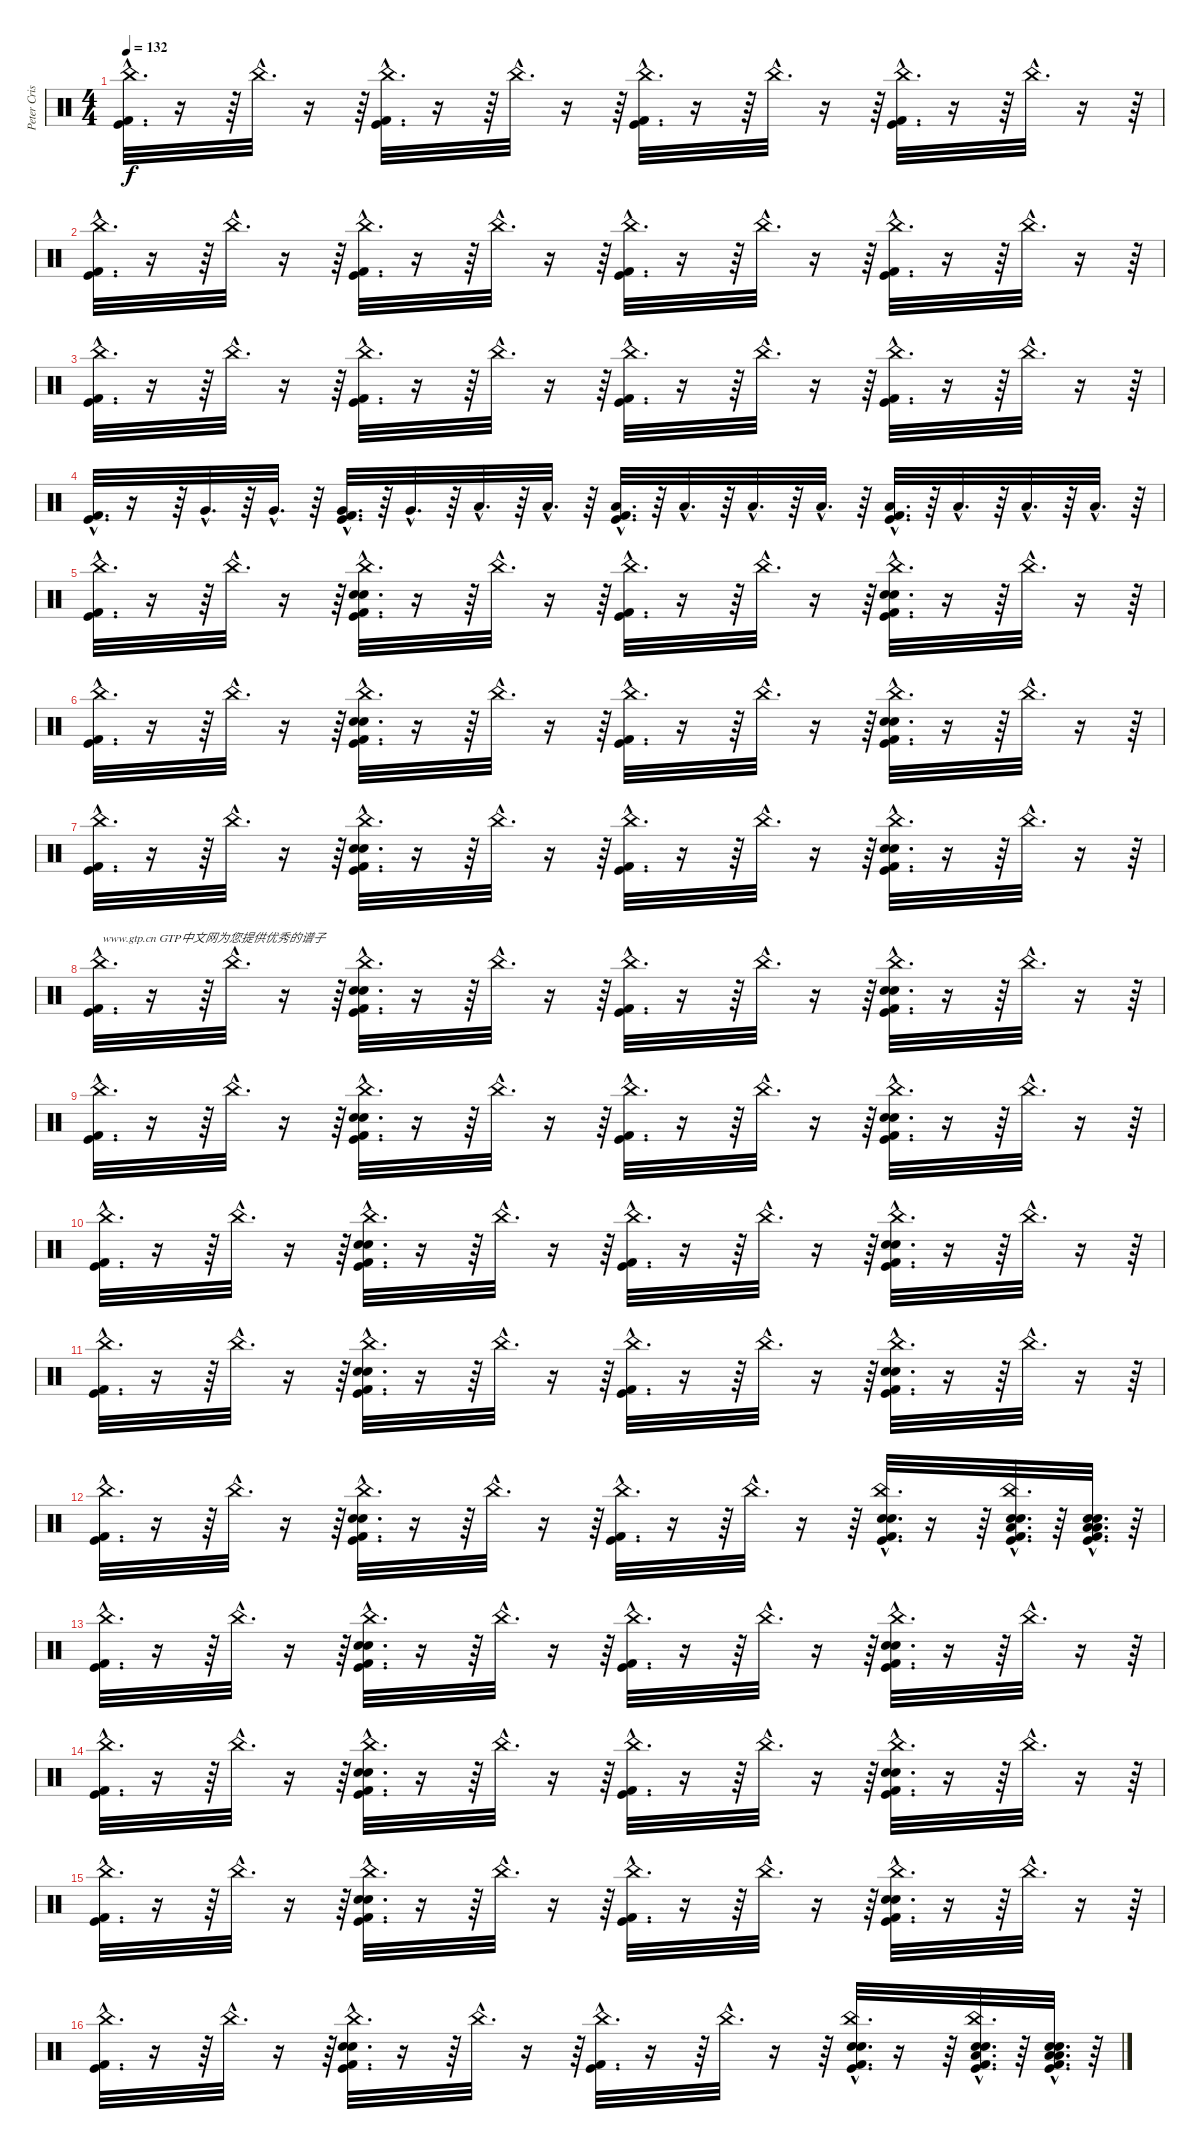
\track ("Peter Criss" "Peter Cris") {instrument percussion}
\staff {score}
\articulation defaults
\ts (4 4)
\tempo 132
\clef neutral
\ks c
("Kick (hit) 2"{hac} "Kick (hit)"{hac} "China (hit)"{hac}).32{d dy f} r.16 r.64 "China (hit)"{hac}.32{d} r.16 r.64 ("Kick (hit) 2"{hac} "Kick (hit)"{hac} "China (hit)"{hac}).32{d} r.16 r.64 "China (hit)"{hac}.32{d} r.16 r.64 ("Kick (hit) 2"{hac} "Kick (hit)"{hac} "China (hit)"{hac}).32{d} r.16 r.64 "China (hit)"{hac}.32{d} r.16 r.64 ("Kick (hit) 2"{hac} "Kick (hit)"{hac} "China (hit)"{hac}).32{d} r.16 r.64 "China (hit)"{hac}.32{d} r.16 r.64 |
("Kick (hit) 2"{hac} "Kick (hit)"{hac} "China (hit)"{hac}).32{d} r.16 r.64 "China (hit)"{hac}.32{d} r.16 r.64 ("Kick (hit) 2"{hac} "Kick (hit)"{hac} "China (hit)"{hac}).32{d} r.16 r.64 "China (hit)"{hac}.32{d} r.16 r.64 ("Kick (hit) 2"{hac} "Kick (hit)"{hac} "China (hit)"{hac}).32{d} r.16 r.64 "China (hit)"{hac}.32{d} r.16 r.64 ("Kick (hit) 2"{hac} "Kick (hit)"{hac} "China (hit)"{hac}).32{d} r.16 r.64 "China (hit)"{hac}.32{d} r.16 r.64 |
("Kick (hit) 2"{hac} "Kick (hit)"{hac} "China (hit)"{hac}).32{d} r.16 r.64 "China (hit)"{hac}.32{d} r.16 r.64 ("Kick (hit) 2"{hac} "Kick (hit)"{hac} "China (hit)"{hac}).32{d} r.16 r.64 "China (hit)"{hac}.32{d} r.16 r.64 ("Kick (hit) 2"{hac} "Kick (hit)"{hac} "China (hit)"{hac}).32{d} r.16 r.64 "China (hit)"{hac}.32{d} r.16 r.64 ("Kick (hit) 2"{hac} "Kick (hit)"{hac} "China (hit)"{hac}).32{d} r.16 r.64 "China (hit)"{hac}.32{d} r.16 r.64 |
("Kick (hit) 2"{hac} "Kick (hit)"{hac}).32{d} r.16 r.64 "Very Low Tom (hit)"{hac}.32{d} r.64 "Very Low Tom (hit)"{hac}.32{d} r.64 ("Kick (hit)"{hac} "Kick (hit) 2"{hac} "Very Low Tom (hit)"{hac}).32{d} r.64 "Very Low Tom (hit)"{hac}.32{d} r.64 "Low Tom (hit)"{hac}.32{d} r.64 "Low Tom (hit)"{hac}.32{d} r.64 ("Kick (hit)"{hac} "Kick (hit) 2"{hac} "Low Tom (hit)"{hac}).32{d} r.64 "Low Tom (hit)"{hac}.32{d} r.64 "Low Floor Tom (hit)"{hac}.32{d} r.64 "Low Floor Tom (hit)"{hac}.32{d} r.64 ("Kick (hit)"{hac} "Kick (hit) 2"{hac} "Low Floor Tom (hit)"{hac}).32{d} r.64 "Low Floor Tom (hit)"{hac}.32{d} r.64 "Low Floor Tom (hit)"{hac}.32{d} r.64 "Low Floor Tom (hit)"{hac}.32{d} r.64 |
("Kick (hit) 2"{hac} "Kick (hit)"{hac} "China (hit)"{hac}).32{d} r.16 r.64 "China (hit)"{hac}.32{d} r.16 r.64 ("Kick (hit) 2"{hac} "Kick (hit)"{hac} "China (hit)"{hac} "Electric Snare (hit)"{hac} "Snare (hit) 2"{hac}).32{d} r.16 r.64 "China (hit)"{hac}.32{d} r.16 r.64 ("Kick (hit) 2"{hac} "Kick (hit)"{hac} "China (hit)"{hac}).32{d} r.16 r.64 "China (hit)"{hac}.32{d} r.16 r.64 ("Kick (hit) 2"{hac} "Kick (hit)"{hac} "China (hit)"{hac} "Electric Snare (hit)"{hac} "Snare (hit) 2"{hac}).32{d} r.16 r.64 "China (hit)"{hac}.32{d} r.16 r.64 |
("Kick (hit) 2"{hac} "Kick (hit)"{hac} "China (hit)"{hac}).32{d} r.16 r.64 "China (hit)"{hac}.32{d} r.16 r.64 ("Kick (hit) 2"{hac} "Kick (hit)"{hac} "China (hit)"{hac} "Electric Snare (hit)"{hac} "Snare (hit) 2"{hac}).32{d} r.16 r.64 "China (hit)"{hac}.32{d} r.16 r.64 ("Kick (hit) 2"{hac} "Kick (hit)"{hac} "China (hit)"{hac}).32{d} r.16 r.64 "China (hit)"{hac}.32{d} r.16 r.64 ("Kick (hit) 2"{hac} "Kick (hit)"{hac} "China (hit)"{hac} "Electric Snare (hit)"{hac} "Snare (hit) 2"{hac}).32{d} r.16 r.64 "China (hit)"{hac}.32{d} r.16 r.64 |
("Kick (hit) 2"{hac} "Kick (hit)"{hac} "China (hit)"{hac}).32{d} r.16 r.64 "China (hit)"{hac}.32{d} r.16 r.64 ("Kick (hit) 2"{hac} "Kick (hit)"{hac} "China (hit)"{hac} "Electric Snare (hit)"{hac} "Snare (hit) 2"{hac}).32{d} r.16 r.64 "China (hit)"{hac}.32{d} r.16 r.64 ("Kick (hit) 2"{hac} "Kick (hit)"{hac} "China (hit)"{hac}).32{d} r.16 r.64 "China (hit)"{hac}.32{d} r.16 r.64 ("Kick (hit) 2"{hac} "Kick (hit)"{hac} "China (hit)"{hac} "Electric Snare (hit)"{hac} "Snare (hit) 2"{hac}).32{d} r.16 r.64 "China (hit)"{hac}.32{d} r.16 r.64 |
("Kick (hit) 2"{hac} "Kick (hit)"{hac} "China (hit)"{hac}).32{d txt "www.gtp.cn GTP中文网为您提供优秀的谱子"} r.16 r.64 "China (hit)"{hac}.32{d} r.16 r.64 ("Kick (hit) 2"{hac} "Kick (hit)"{hac} "China (hit)"{hac} "Electric Snare (hit)"{hac} "Snare (hit) 2"{hac}).32{d} r.16 r.64 "China (hit)"{hac}.32{d} r.16 r.64 ("Kick (hit) 2"{hac} "Kick (hit)"{hac} "China (hit)"{hac}).32{d} r.16 r.64 "China (hit)"{hac}.32{d} r.16 r.64 ("Kick (hit) 2"{hac} "Kick (hit)"{hac} "China (hit)"{hac} "Electric Snare (hit)"{hac} "Snare (hit) 2"{hac}).32{d} r.16 r.64 "China (hit)"{hac}.32{d} r.16 r.64 |
("Kick (hit) 2"{hac} "Kick (hit)"{hac} "China (hit)"{hac}).32{d} r.16 r.64 "China (hit)"{hac}.32{d} r.16 r.64 ("Kick (hit) 2"{hac} "Kick (hit)"{hac} "China (hit)"{hac} "Electric Snare (hit)"{hac} "Snare (hit) 2"{hac}).32{d} r.16 r.64 "China (hit)"{hac}.32{d} r.16 r.64 ("Kick (hit) 2"{hac} "Kick (hit)"{hac} "China (hit)"{hac}).32{d} r.16 r.64 "China (hit)"{hac}.32{d} r.16 r.64 ("Kick (hit) 2"{hac} "Kick (hit)"{hac} "China (hit)"{hac} "Electric Snare (hit)"{hac} "Snare (hit) 2"{hac}).32{d} r.16 r.64 "China (hit)"{hac}.32{d} r.16 r.64 |
("Kick (hit) 2"{hac} "Kick (hit)"{hac} "China (hit)"{hac}).32{d} r.16 r.64 "China (hit)"{hac}.32{d} r.16 r.64 ("Kick (hit) 2"{hac} "Kick (hit)"{hac} "China (hit)"{hac} "Electric Snare (hit)"{hac} "Snare (hit) 2"{hac}).32{d} r.16 r.64 "China (hit)"{hac}.32{d} r.16 r.64 ("Kick (hit) 2"{hac} "Kick (hit)"{hac} "China (hit)"{hac}).32{d} r.16 r.64 "China (hit)"{hac}.32{d} r.16 r.64 ("Kick (hit) 2"{hac} "Kick (hit)"{hac} "China (hit)"{hac} "Electric Snare (hit)"{hac} "Snare (hit) 2"{hac}).32{d} r.16 r.64 "China (hit)"{hac}.32{d} r.16 r.64 |
("Kick (hit) 2"{hac} "Kick (hit)"{hac} "China (hit)"{hac}).32{d} r.16 r.64 "China (hit)"{hac}.32{d} r.16 r.64 ("Kick (hit) 2"{hac} "Kick (hit)"{hac} "China (hit)"{hac} "Electric Snare (hit)"{hac} "Snare (hit) 2"{hac}).32{d} r.16 r.64 "China (hit)"{hac}.32{d} r.16 r.64 ("Kick (hit) 2"{hac} "Kick (hit)"{hac} "China (hit)"{hac}).32{d} r.16 r.64 "China (hit)"{hac}.32{d} r.16 r.64 ("Kick (hit) 2"{hac} "Kick (hit)"{hac} "China (hit)"{hac} "Electric Snare (hit)"{hac} "Snare (hit) 2"{hac}).32{d} r.16 r.64 "China (hit)"{hac}.32{d} r.16 r.64 |
("Kick (hit) 2"{hac} "Kick (hit)"{hac} "China (hit)"{hac}).32{d} r.16 r.64 "China (hit)"{hac}.32{d} r.16 r.64 ("Kick (hit) 2"{hac} "Kick (hit)"{hac} "China (hit)"{hac} "Electric Snare (hit)"{hac} "Snare (hit) 2"{hac}).32{d} r.16 r.64 "China (hit)"{hac}.32{d} r.16 r.64 ("Kick (hit) 2"{hac} "Kick (hit)"{hac} "China (hit)"{hac}).32{d} r.16 r.64 "China (hit)"{hac}.32{d} r.16 r.64 ("Kick (hit) 2"{hac} "Kick (hit)"{hac} "China (hit)"{hac} "Electric Snare (hit)"{hac} "Snare (hit) 2"{hac}).32{d} r.16 r.64 ("China (hit)"{hac} "Electric Snare (hit)"{hac} "Snare (hit) 2"{hac} "Kick (hit) 2"{hac} "Kick (hit)"{hac} "Low Floor Tom (hit)"{hac}).32{d} r.64 ("Electric Snare (hit)"{hac} "Snare (hit) 2"{hac} "Kick (hit) 2"{hac} "Kick (hit)"{hac} "Low Tom (hit)"{hac} "Low Floor Tom (hit)"{hac}).32{d} r.64 |
("Kick (hit) 2"{hac} "Kick (hit)"{hac} "China (hit)"{hac}).32{d} r.16 r.64 "China (hit)"{hac}.32{d} r.16 r.64 ("Kick (hit) 2"{hac} "Kick (hit)"{hac} "China (hit)"{hac} "Electric Snare (hit)"{hac} "Snare (hit) 2"{hac}).32{d} r.16 r.64 "China (hit)"{hac}.32{d} r.16 r.64 ("Kick (hit) 2"{hac} "Kick (hit)"{hac} "China (hit)"{hac}).32{d} r.16 r.64 "China (hit)"{hac}.32{d} r.16 r.64 ("Kick (hit) 2"{hac} "Kick (hit)"{hac} "China (hit)"{hac} "Electric Snare (hit)"{hac} "Snare (hit) 2"{hac}).32{d} r.16 r.64 "China (hit)"{hac}.32{d} r.16 r.64 |
("Kick (hit) 2"{hac} "Kick (hit)"{hac} "China (hit)"{hac}).32{d} r.16 r.64 "China (hit)"{hac}.32{d} r.16 r.64 ("Kick (hit) 2"{hac} "Kick (hit)"{hac} "China (hit)"{hac} "Electric Snare (hit)"{hac} "Snare (hit) 2"{hac}).32{d} r.16 r.64 "China (hit)"{hac}.32{d} r.16 r.64 ("Kick (hit) 2"{hac} "Kick (hit)"{hac} "China (hit)"{hac}).32{d} r.16 r.64 "China (hit)"{hac}.32{d} r.16 r.64 ("Kick (hit) 2"{hac} "Kick (hit)"{hac} "China (hit)"{hac} "Electric Snare (hit)"{hac} "Snare (hit) 2"{hac}).32{d} r.16 r.64 "China (hit)"{hac}.32{d} r.16 r.64 |
("Kick (hit) 2"{hac} "Kick (hit)"{hac} "China (hit)"{hac}).32{d} r.16 r.64 "China (hit)"{hac}.32{d} r.16 r.64 ("Kick (hit) 2"{hac} "Kick (hit)"{hac} "China (hit)"{hac} "Electric Snare (hit)"{hac} "Snare (hit) 2"{hac}).32{d} r.16 r.64 "China (hit)"{hac}.32{d} r.16 r.64 ("Kick (hit) 2"{hac} "Kick (hit)"{hac} "China (hit)"{hac}).32{d} r.16 r.64 "China (hit)"{hac}.32{d} r.16 r.64 ("Kick (hit) 2"{hac} "Kick (hit)"{hac} "China (hit)"{hac} "Electric Snare (hit)"{hac} "Snare (hit) 2"{hac}).32{d} r.16 r.64 "China (hit)"{hac}.32{d} r.16 r.64 |
("Kick (hit) 2"{hac} "Kick (hit)"{hac} "China (hit)"{hac}).32{d} r.16 r.64 "China (hit)"{hac}.32{d} r.16 r.64 ("Kick (hit) 2"{hac} "Kick (hit)"{hac} "China (hit)"{hac} "Electric Snare (hit)"{hac} "Snare (hit) 2"{hac}).32{d} r.16 r.64 "China (hit)"{hac}.32{d} r.16 r.64 ("Kick (hit) 2"{hac} "Kick (hit)"{hac} "China (hit)"{hac}).32{d} r.16 r.64 "China (hit)"{hac}.32{d} r.16 r.64 ("Kick (hit) 2"{hac} "Kick (hit)"{hac} "China (hit)"{hac} "Electric Snare (hit)"{hac} "Snare (hit) 2"{hac}).32{d} r.16 r.64 ("China (hit)"{hac} "Electric Snare (hit)"{hac} "Snare (hit) 2"{hac} "Kick (hit) 2"{hac} "Kick (hit)"{hac} "Low Floor Tom (hit)"{hac}).32{d} r.64 ("Electric Snare (hit)"{hac} "Snare (hit) 2"{hac} "Kick (hit) 2"{hac} "Kick (hit)"{hac} "Low Tom (hit)"{hac} "Low Floor Tom (hit)"{hac}).32{d} r.64
